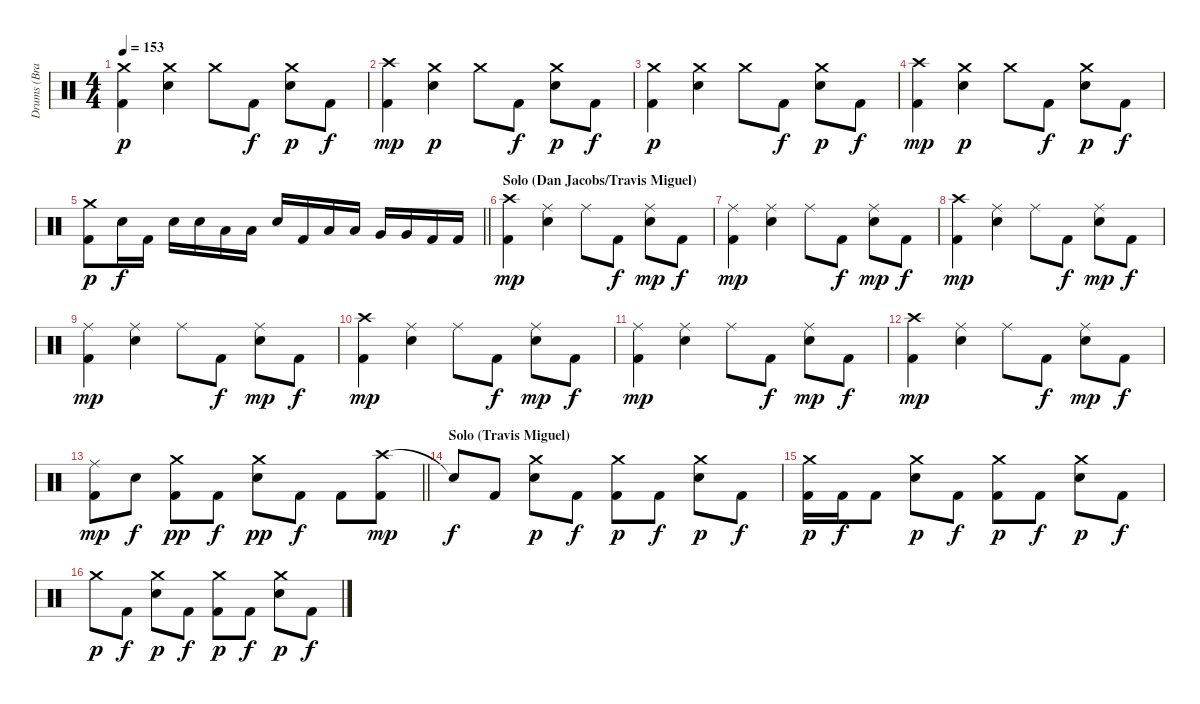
\track ("Drums (Brandon Saller)" "Drums (Bra") {instrument percussion}
\staff {score}
\articulation defaults
\ts (4 4)
\tempo 153
\clef neutral
\ks c
("Crash medium (hit)" "Kick (hit) 2").4{dy p} ("Crash medium (hit)" "Electric Snare (hit)").4 "Crash medium (hit)".8 "Kick (hit) 2".8{dy f} ("Crash medium (hit)" "Electric Snare (hit)").8{dy p} "Kick (hit) 2".8{dy f} |
("Crash high (hit)" "Kick (hit) 2").4{dy mp} ("Crash medium (hit)" "Electric Snare (hit)").4{dy p} "Crash medium (hit)".8 "Kick (hit) 2".8{dy f} ("Crash medium (hit)" "Electric Snare (hit)").8{dy p} "Kick (hit) 2".8{dy f} |
("Crash medium (hit)" "Kick (hit) 2").4{dy p} ("Crash medium (hit)" "Electric Snare (hit)").4 "Crash medium (hit)".8 "Kick (hit) 2".8{dy f} ("Crash medium (hit)" "Electric Snare (hit)").8{dy p} "Kick (hit) 2".8{dy f} |
("Crash high (hit)" "Kick (hit) 2").4{dy mp} ("Crash medium (hit)" "Electric Snare (hit)").4{dy p} "Crash medium (hit)".8 "Kick (hit) 2".8{dy f} ("Crash medium (hit)" "Electric Snare (hit)").8{dy p} "Kick (hit) 2".8{dy f} |
\barLineRight lightlight
("Crash medium (hit)" "Kick (hit) 2").8{dy p} "Electric Snare (hit)".16{dy f} "Kick (hit) 2".16 "Electric Snare (hit)".16 "Electric Snare (hit)".16 "Low Tom (hit)".16 "Low Tom (hit)".16 "Electric Snare (hit)".16 "Kick (hit) 2".16 "Low Tom (hit)".16 "Low Tom (hit)".16 "Very Low Tom (hit)".16 "Very Low Tom (hit)".16 "Kick (hit) 2".16 "Kick (hit) 2".16 |
\section ("" "Solo (Dan Jacobs/Travis Miguel)")
("Crash high (hit)" "Kick (hit) 2").4{dy mp} ("Ride (middle)" "Electric Snare (hit)").4 "Ride (middle)".8 "Kick (hit) 2".8{dy f} ("Ride (middle)" "Electric Snare (hit)").8{dy mp} "Kick (hit) 2".8{dy f} |
("Ride (middle)" "Kick (hit) 2").4{dy mp} ("Ride (middle)" "Electric Snare (hit)").4 "Ride (middle)".8 "Kick (hit) 2".8{dy f} ("Ride (middle)" "Electric Snare (hit)").8{dy mp} "Kick (hit) 2".8{dy f} |
("Crash high (hit)" "Kick (hit) 2").4{dy mp} ("Ride (middle)" "Electric Snare (hit)").4 "Ride (middle)".8 "Kick (hit) 2".8{dy f} ("Ride (middle)" "Electric Snare (hit)").8{dy mp} "Kick (hit) 2".8{dy f} |
("Ride (middle)" "Kick (hit) 2").4{dy mp} ("Ride (middle)" "Electric Snare (hit)").4 "Ride (middle)".8 "Kick (hit) 2".8{dy f} ("Ride (middle)" "Electric Snare (hit)").8{dy mp} "Kick (hit) 2".8{dy f} |
("Crash high (hit)" "Kick (hit) 2").4{dy mp} ("Ride (middle)" "Electric Snare (hit)").4 "Ride (middle)".8 "Kick (hit) 2".8{dy f} ("Ride (middle)" "Electric Snare (hit)").8{dy mp} "Kick (hit) 2".8{dy f} |
("Ride (middle)" "Kick (hit) 2").4{dy mp} ("Ride (middle)" "Electric Snare (hit)").4 "Ride (middle)".8 "Kick (hit) 2".8{dy f} ("Ride (middle)" "Electric Snare (hit)").8{dy mp} "Kick (hit) 2".8{dy f} |
("Crash high (hit)" "Kick (hit) 2").4{dy mp} ("Ride (middle)" "Electric Snare (hit)").4 "Ride (middle)".8 "Kick (hit) 2".8{dy f} ("Ride (middle)" "Electric Snare (hit)").8{dy mp} "Kick (hit) 2".8{dy f} |
\barLineRight lightlight
("Ride (middle)" "Kick (hit) 2").8{dy mp} "Electric Snare (hit)".8{dy f} ("Crash medium (hit)" "Kick (hit) 2").8{dy pp} "Kick (hit) 2".8{dy f} ("Crash medium (hit)" "Electric Snare (hit)").8{dy pp} "Kick (hit) 2".8{dy f} "Kick (hit) 2".8 ("Crash high (hit)" "Kick (hit) 2").8{dy mp} |
\section ("" "Solo (Travis Miguel)")
"Snare (hit)"{t}.8{dy f} "Kick (hit) 2".8 ("Crash medium (hit)" "Electric Snare (hit)").8{dy p} "Kick (hit) 2".8{dy f} ("Crash medium (hit)" "Kick (hit) 2").8{dy p} "Kick (hit) 2".8{dy f} ("Crash medium (hit)" "Electric Snare (hit)").8{dy p} "Kick (hit) 2".8{dy f} |
("Crash medium (hit)" "Kick (hit) 2").16{dy p} "Kick (hit) 2".16{dy f} "Kick (hit) 2".8 ("Crash medium (hit)" "Electric Snare (hit)").8{dy p} "Kick (hit) 2".8{dy f} ("Crash medium (hit)" "Kick (hit) 2").8{dy p} "Kick (hit) 2".8{dy f} ("Crash medium (hit)" "Electric Snare (hit)").8{dy p} "Kick (hit) 2".8{dy f} |
"Crash medium (hit)".8{dy p} "Kick (hit) 2".8{dy f} ("Crash medium (hit)" "Electric Snare (hit)").8{dy p} "Kick (hit) 2".8{dy f} ("Crash medium (hit)" "Kick (hit) 2").8{dy p} "Kick (hit) 2".8{dy f} ("Crash medium (hit)" "Electric Snare (hit)").8{dy p} "Kick (hit) 2".8{dy f}
